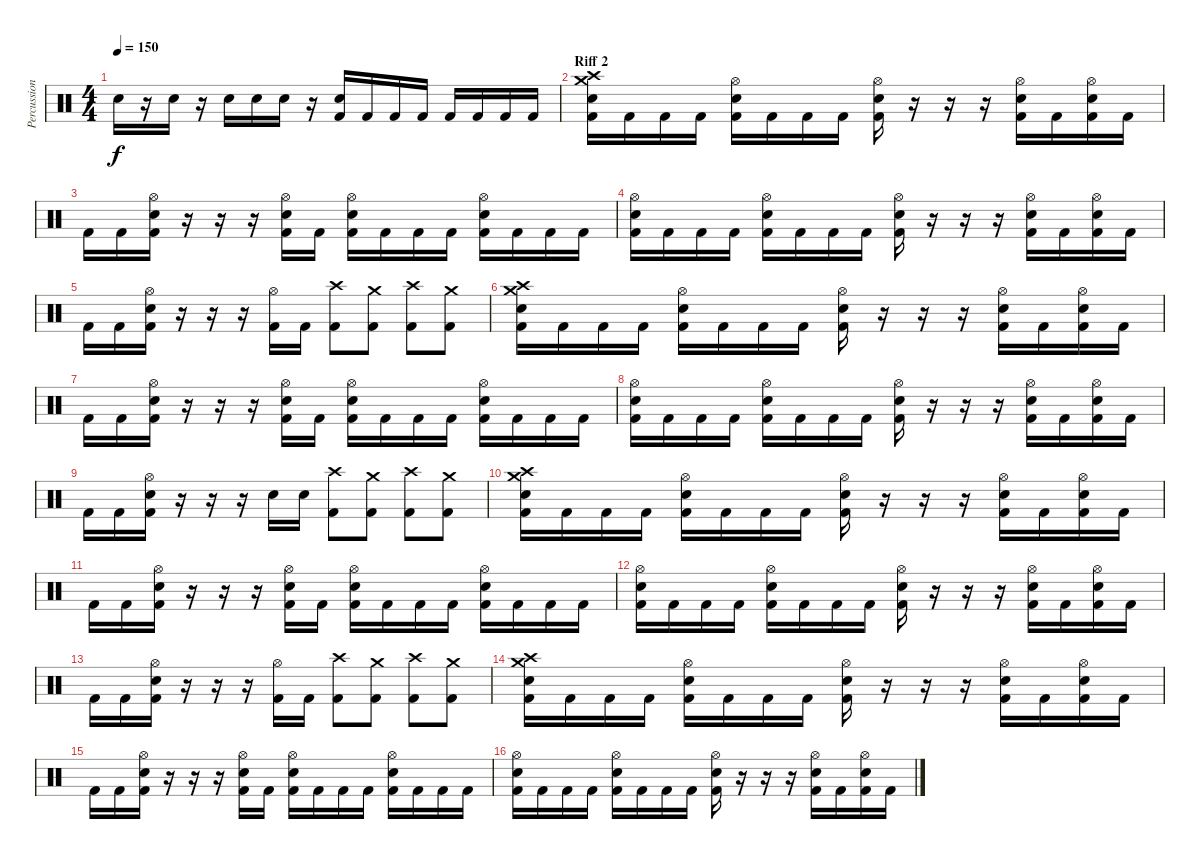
\track ("Percussion" "Percussion") {instrument percussion}
\staff {score}
\articulation defaults
\ts (4 4)
\tempo 150
\clef neutral
\ks c "Electric Snare (hit)".16{dy f}
r.16 "Electric Snare (hit)".16 r.16 "Electric Snare (hit)".16 "Electric Snare (hit)".16 "Electric Snare (hit)".16 r.16 ("Electric Snare (hit)" "Kick (hit) 2").16 "Kick (hit) 2".16 "Kick (hit) 2".16 "Kick (hit) 2".16 "Kick (hit) 2".16 "Kick (hit) 2".16 "Kick (hit) 2".16 "Kick (hit) 2".16 |
\section ("" "Riff 2")
("Crash medium (hit)" "Crash high (hit)" "Electric Snare (hit)" "Kick (hit) 2").16 "Kick (hit) 2".16 "Kick (hit) 2".16 "Kick (hit) 2".16 ("Hi-Hat (open)" "Electric Snare (hit)" "Kick (hit) 2").16 "Kick (hit) 2".16 "Kick (hit) 2".16 "Kick (hit) 2".16 ("Hi-Hat (open)" "Electric Snare (hit)" "Kick (hit) 2").16 r.16 r.16 r.16 ("Hi-Hat (open)" "Electric Snare (hit)" "Kick (hit) 2").16 "Kick (hit) 2".16 ("Hi-Hat (open)" "Electric Snare (hit)" "Kick (hit) 2").16 "Kick (hit) 2".16 |
"Kick (hit) 2".16 "Kick (hit) 2".16 ("Hi-Hat (open)" "Electric Snare (hit)" "Kick (hit) 2").16 r.16 r.16 r.16 ("Hi-Hat (open)" "Electric Snare (hit)" "Kick (hit) 2").16 "Kick (hit) 2".16 ("Hi-Hat (open)" "Electric Snare (hit)" "Kick (hit) 2").16 "Kick (hit) 2".16 "Kick (hit) 2".16 "Kick (hit) 2".16 ("Hi-Hat (open)" "Electric Snare (hit)" "Kick (hit) 2").16 "Kick (hit) 2".16 "Kick (hit) 2".16 "Kick (hit) 2".16 |
("Hi-Hat (open)" "Electric Snare (hit)" "Kick (hit) 2").16 "Kick (hit) 2".16 "Kick (hit) 2".16 "Kick (hit) 2".16 ("Hi-Hat (open)" "Electric Snare (hit)" "Kick (hit) 2").16 "Kick (hit) 2".16 "Kick (hit) 2".16 "Kick (hit) 2".16 ("Hi-Hat (open)" "Electric Snare (hit)" "Kick (hit) 2").16 r.16 r.16 r.16 ("Hi-Hat (open)" "Electric Snare (hit)" "Kick (hit) 2").16 "Kick (hit) 2".16 ("Hi-Hat (open)" "Electric Snare (hit)" "Kick (hit) 2").16 "Kick (hit) 2".16 |
"Kick (hit) 2".16 "Kick (hit) 2".16 ("Hi-Hat (open)" "Electric Snare (hit)" "Kick (hit) 2").16 r.16 r.16 r.16 ("Hi-Hat (open)" "Kick (hit) 2").16 "Kick (hit) 2".16 ("Crash high (hit)" "Kick (hit) 2").8 ("Crash medium (hit)" "Kick (hit) 2").8 ("Crash high (hit)" "Kick (hit) 2").8 ("Crash medium (hit)" "Kick (hit) 2").8 |
("Crash medium (hit)" "Crash high (hit)" "Electric Snare (hit)" "Kick (hit) 2").16 "Kick (hit) 2".16 "Kick (hit) 2".16 "Kick (hit) 2".16 ("Hi-Hat (open)" "Electric Snare (hit)" "Kick (hit) 2").16 "Kick (hit) 2".16 "Kick (hit) 2".16 "Kick (hit) 2".16 ("Hi-Hat (open)" "Electric Snare (hit)" "Kick (hit) 2").16 r.16 r.16 r.16 ("Hi-Hat (open)" "Electric Snare (hit)" "Kick (hit) 2").16 "Kick (hit) 2".16 ("Hi-Hat (open)" "Electric Snare (hit)" "Kick (hit) 2").16 "Kick (hit) 2".16 |
"Kick (hit) 2".16 "Kick (hit) 2".16 ("Hi-Hat (open)" "Electric Snare (hit)" "Kick (hit) 2").16 r.16 r.16 r.16 ("Hi-Hat (open)" "Electric Snare (hit)" "Kick (hit) 2").16 "Kick (hit) 2".16 ("Hi-Hat (open)" "Electric Snare (hit)" "Kick (hit) 2").16 "Kick (hit) 2".16 "Kick (hit) 2".16 "Kick (hit) 2".16 ("Hi-Hat (open)" "Electric Snare (hit)" "Kick (hit) 2").16 "Kick (hit) 2".16 "Kick (hit) 2".16 "Kick (hit) 2".16 |
("Hi-Hat (open)" "Electric Snare (hit)" "Kick (hit) 2").16 "Kick (hit) 2".16 "Kick (hit) 2".16 "Kick (hit) 2".16 ("Hi-Hat (open)" "Electric Snare (hit)" "Kick (hit) 2").16 "Kick (hit) 2".16 "Kick (hit) 2".16 "Kick (hit) 2".16 ("Hi-Hat (open)" "Electric Snare (hit)" "Kick (hit) 2").16 r.16 r.16 r.16 ("Hi-Hat (open)" "Electric Snare (hit)" "Kick (hit) 2").16 "Kick (hit) 2".16 ("Hi-Hat (open)" "Electric Snare (hit)" "Kick (hit) 2").16 "Kick (hit) 2".16 |
"Kick (hit) 2".16 "Kick (hit) 2".16 ("Hi-Hat (open)" "Electric Snare (hit)" "Kick (hit) 2").16 r.16 r.16 r.16 "Electric Snare (hit)".16 "Electric Snare (hit)".16 ("Crash high (hit)" "Kick (hit) 2").8 ("Crash medium (hit)" "Kick (hit) 2").8 ("Crash high (hit)" "Kick (hit) 2").8 ("Crash medium (hit)" "Kick (hit) 2").8 |
("Crash medium (hit)" "Crash high (hit)" "Electric Snare (hit)" "Kick (hit) 2").16 "Kick (hit) 2".16 "Kick (hit) 2".16 "Kick (hit) 2".16 ("Hi-Hat (open)" "Electric Snare (hit)" "Kick (hit) 2").16 "Kick (hit) 2".16 "Kick (hit) 2".16 "Kick (hit) 2".16 ("Hi-Hat (open)" "Electric Snare (hit)" "Kick (hit) 2").16 r.16 r.16 r.16 ("Hi-Hat (open)" "Electric Snare (hit)" "Kick (hit) 2").16 "Kick (hit) 2".16 ("Hi-Hat (open)" "Electric Snare (hit)" "Kick (hit) 2").16 "Kick (hit) 2".16 |
"Kick (hit) 2".16 "Kick (hit) 2".16 ("Hi-Hat (open)" "Electric Snare (hit)" "Kick (hit) 2").16 r.16 r.16 r.16 ("Hi-Hat (open)" "Electric Snare (hit)" "Kick (hit) 2").16 "Kick (hit) 2".16 ("Hi-Hat (open)" "Electric Snare (hit)" "Kick (hit) 2").16 "Kick (hit) 2".16 "Kick (hit) 2".16 "Kick (hit) 2".16 ("Hi-Hat (open)" "Electric Snare (hit)" "Kick (hit) 2").16 "Kick (hit) 2".16 "Kick (hit) 2".16 "Kick (hit) 2".16 |
("Hi-Hat (open)" "Electric Snare (hit)" "Kick (hit) 2").16 "Kick (hit) 2".16 "Kick (hit) 2".16 "Kick (hit) 2".16 ("Hi-Hat (open)" "Electric Snare (hit)" "Kick (hit) 2").16 "Kick (hit) 2".16 "Kick (hit) 2".16 "Kick (hit) 2".16 ("Hi-Hat (open)" "Electric Snare (hit)" "Kick (hit) 2").16 r.16 r.16 r.16 ("Hi-Hat (open)" "Electric Snare (hit)" "Kick (hit) 2").16 "Kick (hit) 2".16 ("Hi-Hat (open)" "Electric Snare (hit)" "Kick (hit) 2").16 "Kick (hit) 2".16 |
"Kick (hit) 2".16 "Kick (hit) 2".16 ("Hi-Hat (open)" "Electric Snare (hit)" "Kick (hit) 2").16 r.16 r.16 r.16 ("Hi-Hat (open)" "Kick (hit) 2").16 "Kick (hit) 2".16 ("Crash high (hit)" "Kick (hit) 2").8 ("Crash medium (hit)" "Kick (hit) 2").8 ("Crash high (hit)" "Kick (hit) 2").8 ("Crash medium (hit)" "Kick (hit) 2").8 |
("Crash medium (hit)" "Crash high (hit)" "Electric Snare (hit)" "Kick (hit) 2").16 "Kick (hit) 2".16 "Kick (hit) 2".16 "Kick (hit) 2".16 ("Hi-Hat (open)" "Electric Snare (hit)" "Kick (hit) 2").16 "Kick (hit) 2".16 "Kick (hit) 2".16 "Kick (hit) 2".16 ("Hi-Hat (open)" "Electric Snare (hit)" "Kick (hit) 2").16 r.16 r.16 r.16 ("Hi-Hat (open)" "Electric Snare (hit)" "Kick (hit) 2").16 "Kick (hit) 2".16 ("Hi-Hat (open)" "Electric Snare (hit)" "Kick (hit) 2").16 "Kick (hit) 2".16 |
"Kick (hit) 2".16 "Kick (hit) 2".16 ("Hi-Hat (open)" "Electric Snare (hit)" "Kick (hit) 2").16 r.16 r.16 r.16 ("Hi-Hat (open)" "Electric Snare (hit)" "Kick (hit) 2").16 "Kick (hit) 2".16 ("Hi-Hat (open)" "Electric Snare (hit)" "Kick (hit) 2").16 "Kick (hit) 2".16 "Kick (hit) 2".16 "Kick (hit) 2".16 ("Hi-Hat (open)" "Electric Snare (hit)" "Kick (hit) 2").16 "Kick (hit) 2".16 "Kick (hit) 2".16 "Kick (hit) 2".16 |
("Hi-Hat (open)" "Electric Snare (hit)" "Kick (hit) 2").16 "Kick (hit) 2".16 "Kick (hit) 2".16 "Kick (hit) 2".16 ("Hi-Hat (open)" "Electric Snare (hit)" "Kick (hit) 2").16 "Kick (hit) 2".16 "Kick (hit) 2".16 "Kick (hit) 2".16 ("Hi-Hat (open)" "Electric Snare (hit)" "Kick (hit) 2").16 r.16 r.16 r.16 ("Hi-Hat (open)" "Electric Snare (hit)" "Kick (hit) 2").16 "Kick (hit) 2".16 ("Hi-Hat (open)" "Electric Snare (hit)" "Kick (hit) 2").16 "Kick (hit) 2".16
